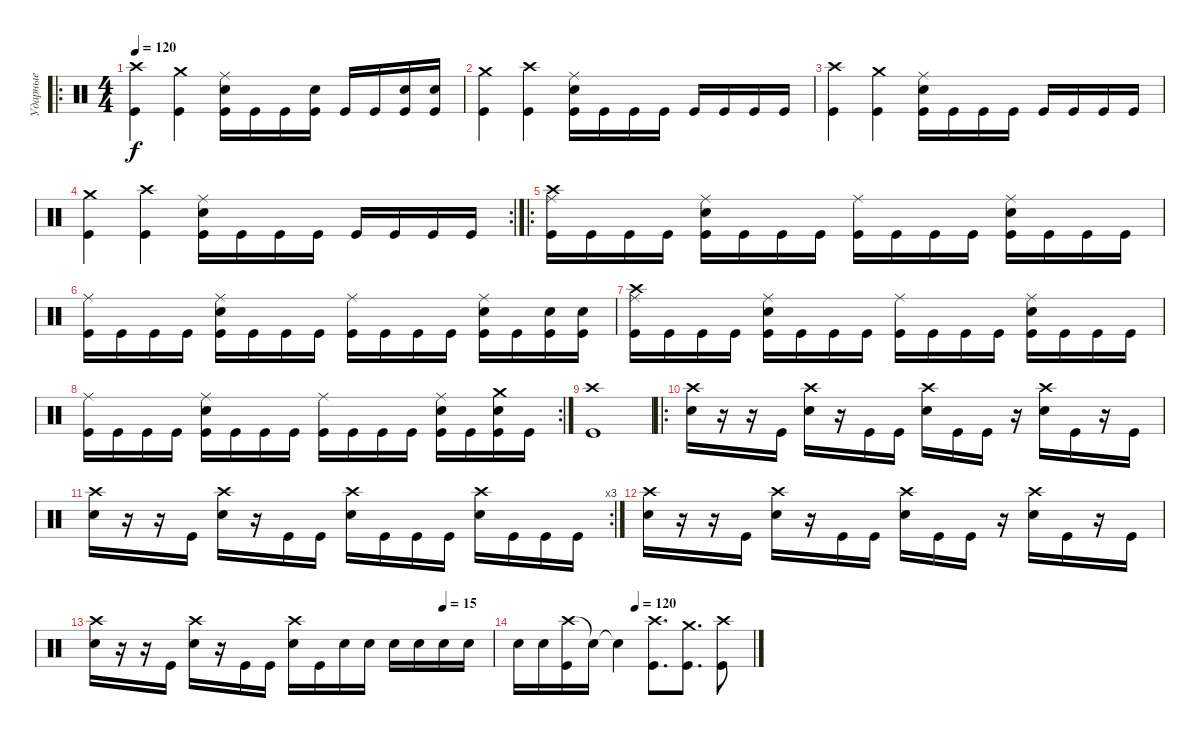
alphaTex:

\track ("Ударные" "Ударные") {instrument percussion}
\staff {score}
\articulation defaults
\ro
\ts (4 4)
\tempo 120
\clef neutral
\ks c
("Crash high (hit)" "Kick (hit)").4{dy f} ("Crash medium (hit)" "Kick (hit)").4 ("Snare (hit) 2" "Kick (hit)" "Ride (middle)").16 "Kick (hit)".16 "Kick (hit)".16 ("Kick (hit)" "Snare (hit) 2").16 "Kick (hit)".16 "Kick (hit)".16 ("Kick (hit)" "Snare (hit) 2").16 ("Kick (hit)" "Snare (hit) 2").16 |
("Crash medium (hit)" "Kick (hit)").4 ("Crash high (hit)" "Kick (hit)").4 ("Snare (hit) 2" "Kick (hit)" "Ride (middle)").16 "Kick (hit)".16 "Kick (hit)".16 "Kick (hit)".16 "Kick (hit)".16 "Kick (hit)".16 "Kick (hit)".16 "Kick (hit)".16 |
("Crash high (hit)" "Kick (hit)").4 ("Crash medium (hit)" "Kick (hit)").4 ("Snare (hit) 2" "Kick (hit)" "Ride (middle)").16 "Kick (hit)".16 "Kick (hit)".16 "Kick (hit)".16 "Kick (hit)".16 "Kick (hit)".16 "Kick (hit)".16 "Kick (hit)".16 |
\rc 2
("Crash medium (hit)" "Kick (hit)").4 ("Crash high (hit)" "Kick (hit)").4 ("Snare (hit) 2" "Kick (hit)" "Ride (middle)").16 "Kick (hit)".16 "Kick (hit)".16 "Kick (hit)".16 "Kick (hit)".16 "Kick (hit)".16 "Kick (hit)".16 "Kick (hit)".16 |
\ro
("Ride (middle)" "Crash high (hit)" "Kick (hit)").16 "Kick (hit)".16 "Kick (hit)".16 "Kick (hit)".16 ("Ride (middle)" "Snare (hit) 2" "Kick (hit)").16 "Kick (hit)".16 "Kick (hit)".16 "Kick (hit)".16 ("Ride (middle)" "Kick (hit)").16 "Kick (hit)".16 "Kick (hit)".16 "Kick (hit)".16 ("Ride (middle)" "Snare (hit) 2" "Kick (hit)").16 "Kick (hit)".16 "Kick (hit)".16 "Kick (hit)".16 |
("Ride (middle)" "Kick (hit)").16 "Kick (hit)".16 "Kick (hit)".16 "Kick (hit)".16 ("Ride (middle)" "Snare (hit) 2" "Kick (hit)").16 "Kick (hit)".16 "Kick (hit)".16 "Kick (hit)".16 ("Ride (middle)" "Kick (hit)").16 "Kick (hit)".16 "Kick (hit)".16 "Kick (hit)".16 ("Ride (middle)" "Snare (hit) 2" "Kick (hit)").16 "Kick (hit)".16 ("Snare (hit) 2" "Kick (hit)").16 ("Snare (hit) 2" "Kick (hit)").16 |
("Ride (middle)" "Crash high (hit)" "Kick (hit)").16 "Kick (hit)".16 "Kick (hit)".16 "Kick (hit)".16 ("Ride (middle)" "Snare (hit) 2" "Kick (hit)").16 "Kick (hit)".16 "Kick (hit)".16 "Kick (hit)".16 ("Ride (middle)" "Kick (hit)").16 "Kick (hit)".16 "Kick (hit)".16 "Kick (hit)".16 ("Ride (middle)" "Snare (hit) 2" "Kick (hit)").16 "Kick (hit)".16 "Kick (hit)".16 "Kick (hit)".16 |
\rc 2
("Ride (middle)" "Kick (hit)").16 "Kick (hit)".16 "Kick (hit)".16 "Kick (hit)".16 ("Ride (middle)" "Snare (hit) 2" "Kick (hit)").16 "Kick (hit)".16 "Kick (hit)".16 "Kick (hit)".16 ("Ride (middle)" "Kick (hit)").16 "Kick (hit)".16 "Kick (hit)".16 "Kick (hit)".16 ("Ride (middle)" "Snare (hit) 2" "Kick (hit)").16 "Kick (hit)".16 ("Crash medium (hit)" "Snare (hit) 2" "Kick (hit)").16 "Kick (hit)".16 |
("Kick (hit)" "Crash high (hit)").1 |
\ro
("Crash high (hit)" "Snare (hit) 2").16 r.16 r.16 "Kick (hit)".16 ("Crash high (hit)" "Snare (hit) 2").16 r.16 "Kick (hit)".16 "Kick (hit)".16 ("Crash high (hit)" "Snare (hit) 2").16 "Kick (hit)".16 "Kick (hit)".16 r.16 ("Crash high (hit)" "Snare (hit) 2").16 "Kick (hit)".16 r.16 "Kick (hit)".16 |
\rc 3
("Crash high (hit)" "Snare (hit) 2").16 r.16 r.16 "Kick (hit)".16 ("Crash high (hit)" "Snare (hit) 2").16 r.16 "Kick (hit)".16 "Kick (hit)".16 ("Crash high (hit)" "Snare (hit) 2").16 "Kick (hit)".16 "Kick (hit)".16 "Kick (hit)".16 ("Crash high (hit)" "Snare (hit) 2").16 "Kick (hit)".16 "Kick (hit)".16 "Kick (hit)".16 |
("Crash high (hit)" "Snare (hit) 2").16 r.16 r.16 "Kick (hit)".16 ("Crash high (hit)" "Snare (hit) 2").16 r.16 "Kick (hit)".16 "Kick (hit)".16 ("Crash high (hit)" "Snare (hit) 2").16 "Kick (hit)".16 "Kick (hit)".16 r.16 ("Crash high (hit)" "Snare (hit) 2").16 "Kick (hit)".16 r.16 "Kick (hit)".16 |
\tempo (15 0.875)
("Crash high (hit)" "Snare (hit) 2").16 r.16 r.16 "Kick (hit)".16 ("Crash high (hit)" "Snare (hit) 2").16 r.16 "Kick (hit)".16 "Kick (hit)".16 ("Crash high (hit)" "Snare (hit) 2").16 "Kick (hit)".16 "Snare (hit) 2".16 "Snare (hit) 2".16 "Snare (hit) 2".16 "Snare (hit) 2".16 "Snare (hit) 2".16 "Snare (hit) 2".16 |
\tempo (120 0.5)
"Snare (hit) 2".16 "Snare (hit) 2".16 ("Crash high (hit)" "Kick (hit)").16 "Snare (hit) 2"{t}.16 "Snare (hit) 2"{t}.4 ("Crash high (hit)" "Kick (hit)").8{d} ("Kick (hit)" "Crash medium (hit)").8{d} ("Crash high (hit)" "Kick (hit)").8
